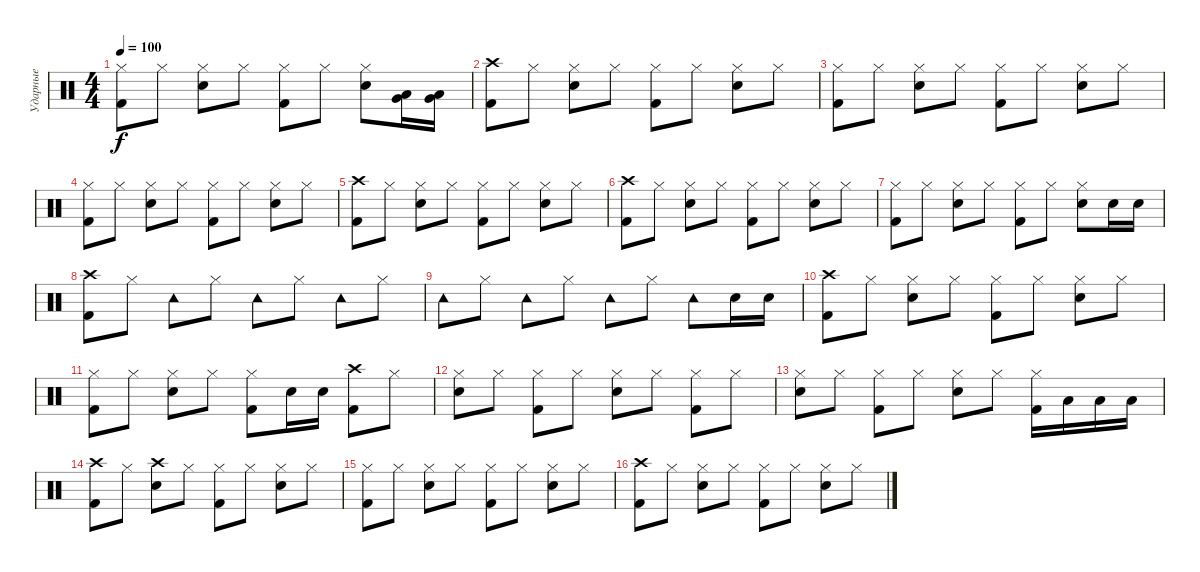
\track ("Ударные" "Ударные") {instrument percussion}
\staff {score}
\articulation defaults
\ts (4 4)
\tempo 100
\clef neutral
\ks c
("Kick (hit) 2" "Hi-Hat (closed)").8{dy f} "Hi-Hat (closed)".8 ("Electric Snare (hit)" "Hi-Hat (closed)").8 "Hi-Hat (closed)".8 ("Hi-Hat (closed)" "Kick (hit) 2").8 "Hi-Hat (closed)".8 ("Electric Snare (hit)" "Hi-Hat (closed)").8 ("Low Tom (hit)" "Very Low Tom (hit)").16 ("Low Tom (hit)" "Very Low Tom (hit)").16 |
("Kick (hit) 2" "Crash high (hit)").8 "Hi-Hat (closed)".8 ("Electric Snare (hit)" "Hi-Hat (closed)").8 "Hi-Hat (closed)".8 ("Hi-Hat (closed)" "Kick (hit) 2").8 "Hi-Hat (closed)".8 ("Electric Snare (hit)" "Hi-Hat (closed)").8 "Hi-Hat (closed)".8 |
("Kick (hit) 2" "Hi-Hat (closed)").8 "Hi-Hat (closed)".8 ("Electric Snare (hit)" "Hi-Hat (closed)").8 "Hi-Hat (closed)".8 ("Hi-Hat (closed)" "Kick (hit) 2").8 "Hi-Hat (closed)".8 ("Electric Snare (hit)" "Hi-Hat (closed)").8 "Hi-Hat (closed)".8 |
("Kick (hit) 2" "Hi-Hat (closed)").8 "Hi-Hat (closed)".8 ("Electric Snare (hit)" "Hi-Hat (closed)").8 "Hi-Hat (closed)".8 ("Hi-Hat (closed)" "Kick (hit) 2").8 "Hi-Hat (closed)".8 ("Electric Snare (hit)" "Hi-Hat (closed)").8 "Hi-Hat (closed)".8 |
("Kick (hit) 2" "Crash high (hit)").8 "Hi-Hat (closed)".8 ("Electric Snare (hit)" "Hi-Hat (closed)").8 "Hi-Hat (closed)".8 ("Kick (hit) 2" "Hi-Hat (closed)").8 "Hi-Hat (closed)".8 ("Electric Snare (hit)" "Hi-Hat (closed)").8 "Hi-Hat (closed)".8 |
("Kick (hit) 2" "Crash high (hit)").8 "Hi-Hat (closed)".8 ("Electric Snare (hit)" "Hi-Hat (closed)").8 "Hi-Hat (closed)".8 ("Kick (hit) 2" "Hi-Hat (closed)").8 "Hi-Hat (closed)".8 ("Electric Snare (hit)" "Hi-Hat (closed)").8 "Hi-Hat (closed)".8 |
("Kick (hit) 2" "Hi-Hat (closed)").8 "Hi-Hat (closed)".8 ("Electric Snare (hit)" "Hi-Hat (closed)").8 "Hi-Hat (closed)".8 ("Kick (hit) 2" "Hi-Hat (closed)").8 "Hi-Hat (closed)".8 ("Electric Snare (hit)" "Hi-Hat (closed)").8 "Electric Snare (hit)".16 "Electric Snare (hit)".16 |
("Kick (hit) 2" "Crash high (hit)").8 "Hi-Hat (closed)".8 "Tambourine (hit)".8 "Hi-Hat (closed)".8 "Tambourine (hit)".8 "Hi-Hat (closed)".8 "Tambourine (hit)".8 "Hi-Hat (closed)".8 |
"Tambourine (hit)".8 "Hi-Hat (closed)".8 "Tambourine (hit)".8 "Hi-Hat (closed)".8 "Tambourine (hit)".8 "Hi-Hat (closed)".8 "Tambourine (hit)".8 "Electric Snare (hit)".16 "Electric Snare (hit)".16 |
("Kick (hit) 2" "Crash high (hit)").8 "Hi-Hat (closed)".8 ("Electric Snare (hit)" "Hi-Hat (closed)").8 "Hi-Hat (closed)".8 ("Kick (hit) 2" "Hi-Hat (closed)").8 "Hi-Hat (closed)".8 ("Electric Snare (hit)" "Hi-Hat (closed)").8 "Hi-Hat (closed)".8 |
("Kick (hit) 2" "Hi-Hat (closed)").8 "Hi-Hat (closed)".8 ("Electric Snare (hit)" "Hi-Hat (closed)").8 "Hi-Hat (closed)".8 ("Kick (hit) 2" "Hi-Hat (closed)").8 "Electric Snare (hit)".16 "Electric Snare (hit)".16 ("Kick (hit) 2" "Crash high (hit)").8 "Hi-Hat (closed)".8 |
("Electric Snare (hit)" "Hi-Hat (closed)").8 "Hi-Hat (closed)".8 ("Kick (hit) 2" "Hi-Hat (closed)").8 "Hi-Hat (closed)".8 ("Electric Snare (hit)" "Hi-Hat (closed)").8 "Hi-Hat (closed)".8 ("Kick (hit) 2" "Hi-Hat (closed)").8 "Hi-Hat (closed)".8 |
("Electric Snare (hit)" "Hi-Hat (closed)").8 "Hi-Hat (closed)".8 ("Kick (hit) 2" "Hi-Hat (closed)").8 "Hi-Hat (closed)".8 ("Electric Snare (hit)" "Hi-Hat (closed)").8 "Hi-Hat (closed)".8 ("Kick (hit) 2" "Hi-Hat (closed)").16 "Low Tom (hit)".16 "Low Tom (hit)".16 "Low Floor Tom (hit)".16 |
("Kick (hit) 2" "Crash high (hit)").8 "Hi-Hat (closed)".8 ("Electric Snare (hit)" "Crash high (hit)").8 "Hi-Hat (closed)".8 ("Kick (hit) 2" "Hi-Hat (closed)").8 "Hi-Hat (closed)".8 ("Electric Snare (hit)" "Hi-Hat (closed)").8 "Hi-Hat (closed)".8 |
("Kick (hit) 2" "Hi-Hat (closed)").8 "Hi-Hat (closed)".8 ("Electric Snare (hit)" "Hi-Hat (closed)").8 "Hi-Hat (closed)".8 ("Kick (hit) 2" "Hi-Hat (closed)").8 "Hi-Hat (closed)".8 ("Electric Snare (hit)" "Hi-Hat (closed)").8 "Hi-Hat (closed)".8 |
("Kick (hit) 2" "Crash high (hit)").8 "Hi-Hat (closed)".8 ("Electric Snare (hit)" "Hi-Hat (closed)").8 "Hi-Hat (closed)".8 ("Kick (hit) 2" "Hi-Hat (closed)").8 "Hi-Hat (closed)".8 ("Electric Snare (hit)" "Hi-Hat (closed)").8 "Hi-Hat (closed)".8
